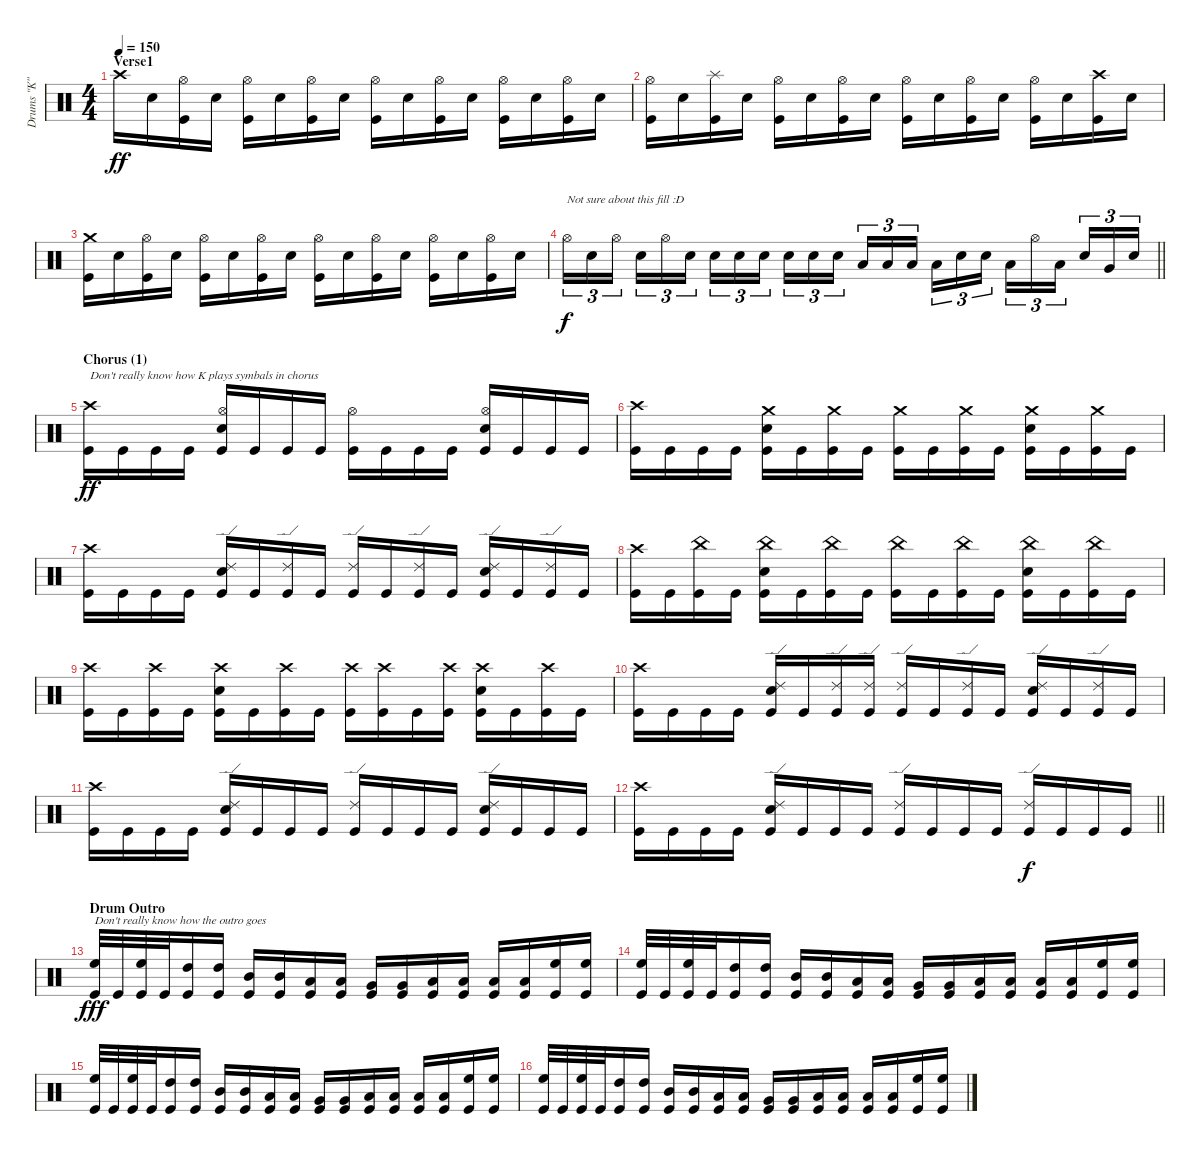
\track ("Drums \"K\"" "Drums \"K\"") {instrument percussion}
\staff {score}
\articulation defaults
\ts (4 4)
\section ("" "Verse1")
\tempo 150
\clef neutral
\ks c "Crash high (hit)".16{dy ff} "Snare (hit) 2".16
("Hi-Hat (open)" "Kick (hit)").16 "Snare (hit) 2".16 ("Hi-Hat (open)" "Kick (hit)").16 "Snare (hit) 2".16 ("Hi-Hat (open)" "Kick (hit)").16 "Snare (hit) 2".16 ("Hi-Hat (open)" "Kick (hit)").16 "Snare (hit) 2".16 ("Hi-Hat (open)" "Kick (hit)").16 "Snare (hit) 2".16 ("Hi-Hat (open)" "Kick (hit)").16 "Snare (hit) 2".16 ("Hi-Hat (open)" "Kick (hit)").16 "Snare (hit) 2".16 |
("Hi-Hat (open)" "Kick (hit)").16 "Snare (hit) 2".16 ("Splash (hit)" "Kick (hit)").16 "Snare (hit) 2".16 ("Hi-Hat (open)" "Kick (hit)").16 "Snare (hit) 2".16 ("Hi-Hat (open)" "Kick (hit)").16 "Snare (hit) 2".16 ("Hi-Hat (open)" "Kick (hit)").16 "Snare (hit) 2".16 ("Hi-Hat (open)" "Kick (hit)").16 "Snare (hit) 2".16 ("Hi-Hat (open)" "Kick (hit)").16 "Snare (hit) 2".16 ("Crash high (hit)" "Kick (hit)").16 "Snare (hit) 2".16 |
("Crash medium (hit)" "Kick (hit)").16 "Snare (hit) 2".16 ("Hi-Hat (open)" "Kick (hit)").16 "Snare (hit) 2".16 ("Hi-Hat (open)" "Kick (hit)").16 "Snare (hit) 2".16 ("Hi-Hat (open)" "Kick (hit)").16 "Snare (hit) 2".16 ("Hi-Hat (open)" "Kick (hit)").16 "Snare (hit) 2".16 ("Hi-Hat (open)" "Kick (hit)").16 "Snare (hit) 2".16 ("Hi-Hat (open)" "Kick (hit)").16 "Snare (hit) 2".16 ("Hi-Hat (open)" "Kick (hit)").16 "Snare (hit) 2".16 |
\barLineRight lightlight "Hi-Hat (open)".16{tu (3 2) txt "Not sure about this fill :D" dy f} "Snare (hit) 2".16{tu (3 2)} "Hi-Hat (open)".16{tu (3 2) beam splitsecondary} "Snare (hit) 2".16{tu (3 2)} "Hi-Hat (open)".16{tu (3 2)} "Snare (hit) 2".16{tu (3 2)} "Snare (hit) 2".16{tu (3 2)} "Snare (hit) 2".16{tu (3 2)} "Snare (hit) 2".16{tu (3 2) beam splitsecondary} "Snare (hit) 2".16{tu (3 2)} "Snare (hit) 2".16{tu (3 2)} "Snare (hit) 2".16{tu (3 2)} "Low Tom (hit)".16{tu (3 2)} "Low Tom (hit)".16{tu (3 2)} "Low Tom (hit)".16{tu (3 2) beam splitsecondary} "Low Tom (hit)".16{tu (3 2)} "Snare (hit) 2".16{tu (3 2)} "Snare (hit) 2".16{tu (3 2)} "Low Tom (hit)".16{tu (3 2)} "Hi-Hat (open)".16{tu (3 2)} "Low Tom (hit)".16{tu (3 2) beam splitsecondary} "Metronome (bell)".16{tu (3 2)} "Very Low Tom (hit)".16{tu (3 2)} "Snare (hit) 2".16{tu (3 2)}
|
\section ("" "Chorus (1)")
("Crash high (hit)" "Kick (hit)").16{txt "Don't really know how K plays symbals in chorus" dy ff} "Kick (hit)".16 "Kick (hit)".16 "Kick (hit)".16 ("Hi-Hat (open)" "Snare (hit) 2" "Kick (hit)").16 "Kick (hit)".16 "Kick (hit)".16 "Kick (hit)".16 ("Hi-Hat (open)" "Kick (hit)").16 "Kick (hit)".16 "Kick (hit)".16 "Kick (hit)".16 ("Hi-Hat (open)" "Snare (hit) 2" "Kick (hit)").16 "Kick (hit)".16 "Kick (hit)".16 "Kick (hit)".16 |
("Crash high (hit)" "Kick (hit)").16 "Kick (hit)".16 "Kick (hit)".16 "Kick (hit)".16 ("Crash medium (hit)" "Snare (hit) 2" "Kick (hit)").16 "Kick (hit)".16 ("Crash medium (hit)" "Kick (hit)").16 "Kick (hit)".16 ("Crash medium (hit)" "Kick (hit)").16 "Kick (hit)".16 ("Crash medium (hit)" "Kick (hit)").16 "Kick (hit)".16 ("Crash medium (hit)" "Snare (hit) 2" "Kick (hit)").16 "Kick (hit)".16 ("Crash medium (hit)" "Kick (hit)").16 "Kick (hit)".16 |
("Crash high (hit)" "Kick (hit)").16 "Kick (hit)".16 "Kick (hit)".16 "Kick (hit)".16 ("Ride (edge) 2" "Snare (hit) 2" "Kick (hit)").16 "Kick (hit)".16 ("Ride (edge) 2" "Kick (hit)").16 "Kick (hit)".16 ("Ride (edge) 2" "Kick (hit)").16 "Kick (hit)".16 ("Ride (edge) 2" "Kick (hit)").16 "Kick (hit)".16 ("Ride (edge) 2" "Snare (hit) 2" "Kick (hit)").16 "Kick (hit)".16 ("Ride (edge) 2" "Kick (hit)").16 "Kick (hit)".16 |
("Crash high (hit)" "Kick (hit)").16 "Kick (hit)".16 ("China (hit)" "Kick (hit)").16 "Kick (hit)".16 ("China (hit)" "Snare (hit) 2" "Kick (hit)").16 "Kick (hit)".16 ("China (hit)" "Kick (hit)").16 "Kick (hit)".16 ("China (hit)" "Kick (hit)").16 "Kick (hit)".16 ("China (hit)" "Kick (hit)").16 "Kick (hit)".16 ("China (hit)" "Snare (hit) 2" "Kick (hit)").16 "Kick (hit)".16 ("China (hit)" "Kick (hit)").16 "Kick (hit)".16 |
("Crash high (hit)" "Kick (hit)").16 "Kick (hit)".16 ("Crash high (hit)" "Kick (hit)").16 "Kick (hit)".16 ("Crash high (hit)" "Snare (hit) 2" "Kick (hit)").16 "Kick (hit)".16 ("Crash high (hit)" "Kick (hit)").16 "Kick (hit)".16 ("Crash high (hit)" "Kick (hit)").16 ("Crash high (hit)" "Kick (hit)").16 "Kick (hit)".16 ("Crash high (hit)" "Kick (hit)").16 ("Crash high (hit)" "Snare (hit) 2" "Kick (hit)").16 "Kick (hit)".16 ("Crash high (hit)" "Kick (hit)").16 "Kick (hit)".16 |
("Crash high (hit)" "Kick (hit)").16 "Kick (hit)".16 "Kick (hit)".16 "Kick (hit)".16 ("Ride (edge) 2" "Snare (hit) 2" "Kick (hit)").16 "Kick (hit)".16 ("Ride (edge) 2" "Kick (hit)").16 ("Ride (edge) 2" "Kick (hit)").16 ("Ride (edge) 2" "Kick (hit)").16 "Kick (hit)".16 ("Ride (edge) 2" "Kick (hit)").16 "Kick (hit)".16 ("Ride (edge) 2" "Snare (hit) 2" "Kick (hit)").16 "Kick (hit)".16 ("Ride (edge) 2" "Kick (hit)").16 "Kick (hit)".16 |
("Crash high (hit)" "Kick (hit)").16 "Kick (hit)".16 "Kick (hit)".16 "Kick (hit)".16 ("Ride (edge) 2" "Snare (hit) 2" "Kick (hit)").16 "Kick (hit)".16 "Kick (hit)".16 "Kick (hit)".16 ("Ride (edge) 2" "Kick (hit)").16 "Kick (hit)".16 "Kick (hit)".16 "Kick (hit)".16 ("Ride (edge) 2" "Snare (hit) 2" "Kick (hit)").16 "Kick (hit)".16 "Kick (hit)".16 "Kick (hit)".16 |
\barLineRight lightlight
("Crash high (hit)" "Kick (hit)").16 "Kick (hit)".16 "Kick (hit)".16 "Kick (hit)".16 ("Ride (edge) 2" "Snare (hit) 2" "Kick (hit)").16 "Kick (hit)".16 "Kick (hit)".16 "Kick (hit)".16 ("Ride (edge) 2" "Kick (hit)").16 "Kick (hit)".16 "Kick (hit)".16 "Kick (hit)".16 ("Ride (edge) 2" "Kick (hit)").16{dy f} "Kick (hit)".16 "Kick (hit)".16 "Kick (hit)".16 |
\section ("" "Drum Outro")
("High Floor Tom (hit)" "Kick (hit)").32{txt "Don't really know how the outro goes" dy fff} "Kick (hit)".32 ("High Floor Tom (hit)" "Kick (hit)").32 "Kick (hit)".32 ("High Tom (hit)" "Kick (hit)").16 ("High Tom (hit)" "Kick (hit)").16 ("Mid Tom (hit)" "Kick (hit)").16 ("Mid Tom (hit)" "Kick (hit)").16 ("Low Tom (hit)" "Kick (hit)").16 ("Low Tom (hit)" "Kick (hit)").16 ("Very Low Tom (hit)" "Kick (hit)").16 ("Very Low Tom (hit)" "Kick (hit)").16 ("Low Floor Tom (hit)" "Kick (hit)").16 ("Low Floor Tom (hit)" "Kick (hit)").16 ("Low Floor Tom (hit)" "Kick (hit)").16 ("Low Floor Tom (hit)" "Kick (hit)").16 ("High Floor Tom (hit)" "Kick (hit)").16 ("High Floor Tom (hit)" "Kick (hit)").16 |
("High Floor Tom (hit)" "Kick (hit)").32 "Kick (hit)".32 ("High Floor Tom (hit)" "Kick (hit)").32 "Kick (hit)".32 ("High Tom (hit)" "Kick (hit)").16 ("High Tom (hit)" "Kick (hit)").16 ("Mid Tom (hit)" "Kick (hit)").16 ("Mid Tom (hit)" "Kick (hit)").16 ("Low Tom (hit)" "Kick (hit)").16 ("Low Tom (hit)" "Kick (hit)").16 ("Very Low Tom (hit)" "Kick (hit)").16 ("Very Low Tom (hit)" "Kick (hit)").16 ("Low Floor Tom (hit)" "Kick (hit)").16 ("Low Floor Tom (hit)" "Kick (hit)").16 ("Low Floor Tom (hit)" "Kick (hit)").16 ("Low Floor Tom (hit)" "Kick (hit)").16 ("High Floor Tom (hit)" "Kick (hit)").16 ("High Floor Tom (hit)" "Kick (hit)").16 |
("High Floor Tom (hit)" "Kick (hit)").32 "Kick (hit)".32 ("High Floor Tom (hit)" "Kick (hit)").32 "Kick (hit)".32 ("High Tom (hit)" "Kick (hit)").16 ("High Tom (hit)" "Kick (hit)").16 ("Mid Tom (hit)" "Kick (hit)").16 ("Mid Tom (hit)" "Kick (hit)").16 ("Low Tom (hit)" "Kick (hit)").16 ("Low Tom (hit)" "Kick (hit)").16 ("Very Low Tom (hit)" "Kick (hit)").16 ("Very Low Tom (hit)" "Kick (hit)").16 ("Low Floor Tom (hit)" "Kick (hit)").16 ("Low Floor Tom (hit)" "Kick (hit)").16 ("Low Floor Tom (hit)" "Kick (hit)").16 ("Low Floor Tom (hit)" "Kick (hit)").16 ("High Floor Tom (hit)" "Kick (hit)").16 ("High Floor Tom (hit)" "Kick (hit)").16 |
("High Floor Tom (hit)" "Kick (hit)").32 "Kick (hit)".32 ("High Floor Tom (hit)" "Kick (hit)").32 "Kick (hit)".32 ("High Tom (hit)" "Kick (hit)").16 ("High Tom (hit)" "Kick (hit)").16 ("Mid Tom (hit)" "Kick (hit)").16 ("Mid Tom (hit)" "Kick (hit)").16 ("Low Tom (hit)" "Kick (hit)").16 ("Low Tom (hit)" "Kick (hit)").16 ("Very Low Tom (hit)" "Kick (hit)").16 ("Very Low Tom (hit)" "Kick (hit)").16 ("Low Floor Tom (hit)" "Kick (hit)").16 ("Low Floor Tom (hit)" "Kick (hit)").16 ("Low Floor Tom (hit)" "Kick (hit)").16 ("Low Floor Tom (hit)" "Kick (hit)").16 ("High Floor Tom (hit)" "Kick (hit)").16 ("High Floor Tom (hit)" "Kick (hit)").16
